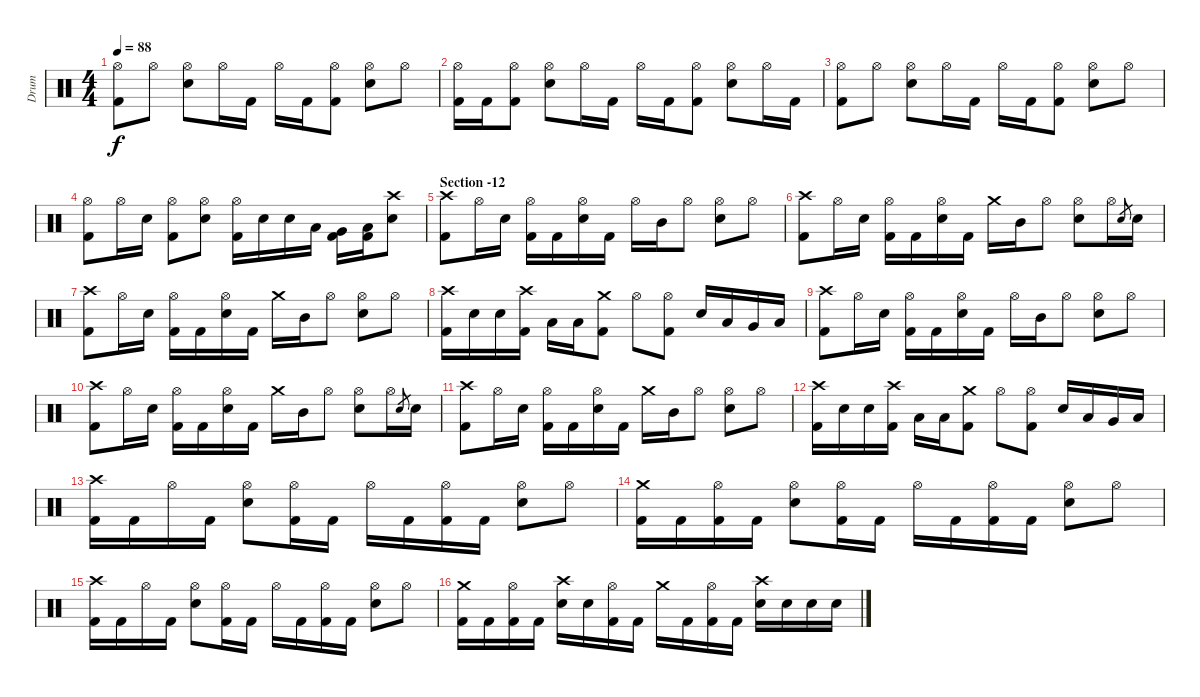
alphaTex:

\track ("Drum" "Drum") {instrument percussion}
\staff {score}
\articulation defaults
\ts (4 4)
\tempo 88
\clef neutral
\ks c
("Hi-Hat (open)" "Kick (hit) 2").8{dy f} "Hi-Hat (open)".8 ("Hi-Hat (open)" "Electric Snare (hit)").8 "Hi-Hat (open)".16 "Kick (hit) 2".16 "Hi-Hat (open)".16 "Kick (hit) 2".16 ("Hi-Hat (open)" "Kick (hit) 2").8 ("Hi-Hat (open)" "Electric Snare (hit)").8 "Hi-Hat (open)".8 |
("Hi-Hat (open)" "Kick (hit) 2").16 "Kick (hit) 2".16 ("Hi-Hat (open)" "Kick (hit) 2").8 ("Hi-Hat (open)" "Electric Snare (hit)").8 "Hi-Hat (open)".16 "Kick (hit) 2".16 "Hi-Hat (open)".16 "Kick (hit) 2".16 ("Hi-Hat (open)" "Kick (hit) 2").8 ("Hi-Hat (open)" "Electric Snare (hit)").8 "Hi-Hat (open)".16 "Kick (hit) 2".16 |
("Hi-Hat (open)" "Kick (hit) 2").8 "Hi-Hat (open)".8 ("Hi-Hat (open)" "Electric Snare (hit)").8 "Hi-Hat (open)".16 "Kick (hit) 2".16 "Hi-Hat (open)".16 "Kick (hit) 2".16 ("Hi-Hat (open)" "Kick (hit) 2").8 ("Hi-Hat (open)" "Electric Snare (hit)").8 "Hi-Hat (open)".8 |
("Hi-Hat (open)" "Kick (hit) 2").8 "Hi-Hat (open)".16 "Electric Snare (hit)".16 ("Hi-Hat (open)" "Kick (hit) 2").8 ("Hi-Hat (open)" "Electric Snare (hit)").8 ("Hi-Hat (open)" "Kick (hit) 2").16 "Electric Snare (hit)".16 "Electric Snare (hit)".16 "Low Tom (hit)".16 ("Very Low Tom (hit)" "Kick (hit) 2").16 ("Low Floor Tom (hit)" "Kick (hit) 2").16 ("Crash high (hit)" "Electric Snare (hit)").8 |
\section ("" "Section -12")
("Crash high (hit)" "Kick (hit) 2").8 "Hi-Hat (open)".16 "Electric Snare (hit)".16 ("Hi-Hat (open)" "Kick (hit) 2").16 "Kick (hit) 2".16 ("Hi-Hat (open)" "Electric Snare (hit)").16 "Kick (hit) 2".16 "Hi-Hat (open)".16 "Mid Tom (hit)".16 "Hi-Hat (open)".8 ("Hi-Hat (open)" "Electric Snare (hit)").8 "Hi-Hat (open)".8 |
("Crash high (hit)" "Kick (hit) 2").8 "Hi-Hat (open)".16 "Electric Snare (hit)".16 ("Hi-Hat (open)" "Kick (hit) 2").16 "Kick (hit) 2".16 ("Hi-Hat (open)" "Electric Snare (hit)").16 "Kick (hit) 2".16 "Crash medium (hit)".16 "Mid Tom (hit)".16 "Hi-Hat (open)".8 ("Hi-Hat (open)" "Electric Snare (hit)").8 "Hi-Hat (open)".16 "Electric Snare (hit)".8{gr} "Electric Snare (hit)".16 |
("Crash high (hit)" "Kick (hit) 2").8 "Hi-Hat (open)".16 "Electric Snare (hit)".16 ("Hi-Hat (open)" "Kick (hit) 2").16 "Kick (hit) 2".16 ("Hi-Hat (open)" "Electric Snare (hit)").16 "Kick (hit) 2".16 "Crash medium (hit)".16 "Mid Tom (hit)".16 "Hi-Hat (open)".8 ("Hi-Hat (open)" "Electric Snare (hit)").8 "Hi-Hat (open)".8 |
("Crash high (hit)" "Kick (hit) 2").16 "Electric Snare (hit)".16 "Electric Snare (hit)".16 ("Crash high (hit)" "Kick (hit) 2").16 "Low Tom (hit)".16 "Low Tom (hit)".16 ("Crash medium (hit)" "Kick (hit) 2").8 "Hi-Hat (open)".8 ("Hi-Hat (open)" "Kick (hit) 2").8 "Electric Snare (hit)".16 "Low Tom (hit)".16 "Very Low Tom (hit)".16 "Low Floor Tom (hit)".16 |
("Crash high (hit)" "Kick (hit) 2").8 "Hi-Hat (open)".16 "Electric Snare (hit)".16 ("Hi-Hat (open)" "Kick (hit) 2").16 "Kick (hit) 2".16 ("Hi-Hat (open)" "Electric Snare (hit)").16 "Kick (hit) 2".16 "Hi-Hat (open)".16 "Mid Tom (hit)".16 "Hi-Hat (open)".8 ("Hi-Hat (open)" "Electric Snare (hit)").8 "Hi-Hat (open)".8 |
("Crash high (hit)" "Kick (hit) 2").8 "Hi-Hat (open)".16 "Electric Snare (hit)".16 ("Hi-Hat (open)" "Kick (hit) 2").16 "Kick (hit) 2".16 ("Hi-Hat (open)" "Electric Snare (hit)").16 "Kick (hit) 2".16 "Crash medium (hit)".16 "Mid Tom (hit)".16 "Hi-Hat (open)".8 ("Hi-Hat (open)" "Electric Snare (hit)").8 "Hi-Hat (open)".16 "Electric Snare (hit)".8{gr} "Electric Snare (hit)".16 |
("Crash high (hit)" "Kick (hit) 2").8 "Hi-Hat (open)".16 "Electric Snare (hit)".16 ("Hi-Hat (open)" "Kick (hit) 2").16 "Kick (hit) 2".16 ("Hi-Hat (open)" "Electric Snare (hit)").16 "Kick (hit) 2".16 "Crash medium (hit)".16 "Mid Tom (hit)".16 "Hi-Hat (open)".8 ("Hi-Hat (open)" "Electric Snare (hit)").8 "Hi-Hat (open)".8 |
("Crash high (hit)" "Kick (hit) 2").16 "Electric Snare (hit)".16 "Electric Snare (hit)".16 ("Crash high (hit)" "Kick (hit) 2").16 "Low Tom (hit)".16 "Low Tom (hit)".16 ("Crash medium (hit)" "Kick (hit) 2").8 "Hi-Hat (open)".8 ("Hi-Hat (open)" "Kick (hit) 2").8 "Electric Snare (hit)".16 "Low Tom (hit)".16 "Very Low Tom (hit)".16 "Low Floor Tom (hit)".16 |
("Crash high (hit)" "Kick (hit) 2").16 "Kick (hit) 2".16 "Hi-Hat (open)".16 "Kick (hit) 2".16 ("Hi-Hat (open)" "Electric Snare (hit)").8 ("Hi-Hat (open)" "Kick (hit) 2").16 "Kick (hit) 2".16 "Hi-Hat (open)".16 "Kick (hit) 2".16 ("Hi-Hat (open)" "Kick (hit) 2").16 "Kick (hit) 2".16 ("Hi-Hat (open)" "Electric Snare (hit)").8 "Hi-Hat (open)".8 |
("Crash medium (hit)" "Kick (hit) 2").16 "Kick (hit) 2".16 ("Hi-Hat (open)" "Kick (hit) 2").16 "Kick (hit) 2".16 ("Hi-Hat (open)" "Electric Snare (hit)").8 ("Hi-Hat (open)" "Kick (hit) 2").16 "Kick (hit) 2".16 "Hi-Hat (open)".16 "Kick (hit) 2".16 ("Hi-Hat (open)" "Kick (hit) 2").16 "Kick (hit) 2".16 ("Hi-Hat (open)" "Electric Snare (hit)").8 "Hi-Hat (open)".8 |
("Crash high (hit)" "Kick (hit) 2").16 "Kick (hit) 2".16 "Hi-Hat (open)".16 "Kick (hit) 2".16 ("Hi-Hat (open)" "Electric Snare (hit)").8 ("Hi-Hat (open)" "Kick (hit) 2").16 "Kick (hit) 2".16 "Hi-Hat (open)".16 "Kick (hit) 2".16 ("Hi-Hat (open)" "Kick (hit) 2").16 "Kick (hit) 2".16 ("Hi-Hat (open)" "Electric Snare (hit)").8 "Hi-Hat (open)".8 |
("Crash medium (hit)" "Kick (hit) 2").16 "Kick (hit) 2".16 ("Hi-Hat (open)" "Kick (hit) 2").16 "Kick (hit) 2".16 ("Crash high (hit)" "Electric Snare (hit)").16 "Electric Snare (hit)".16 ("Hi-Hat (open)" "Kick (hit) 2").16 "Kick (hit) 2".16 "Crash medium (hit)".16 "Kick (hit) 2".16 ("Hi-Hat (open)" "Kick (hit) 2").16 "Kick (hit) 2".16 ("Crash high (hit)" "Electric Snare (hit)").16 "Electric Snare (hit)".16 "Electric Snare (hit)".16 "Electric Snare (hit)".16
